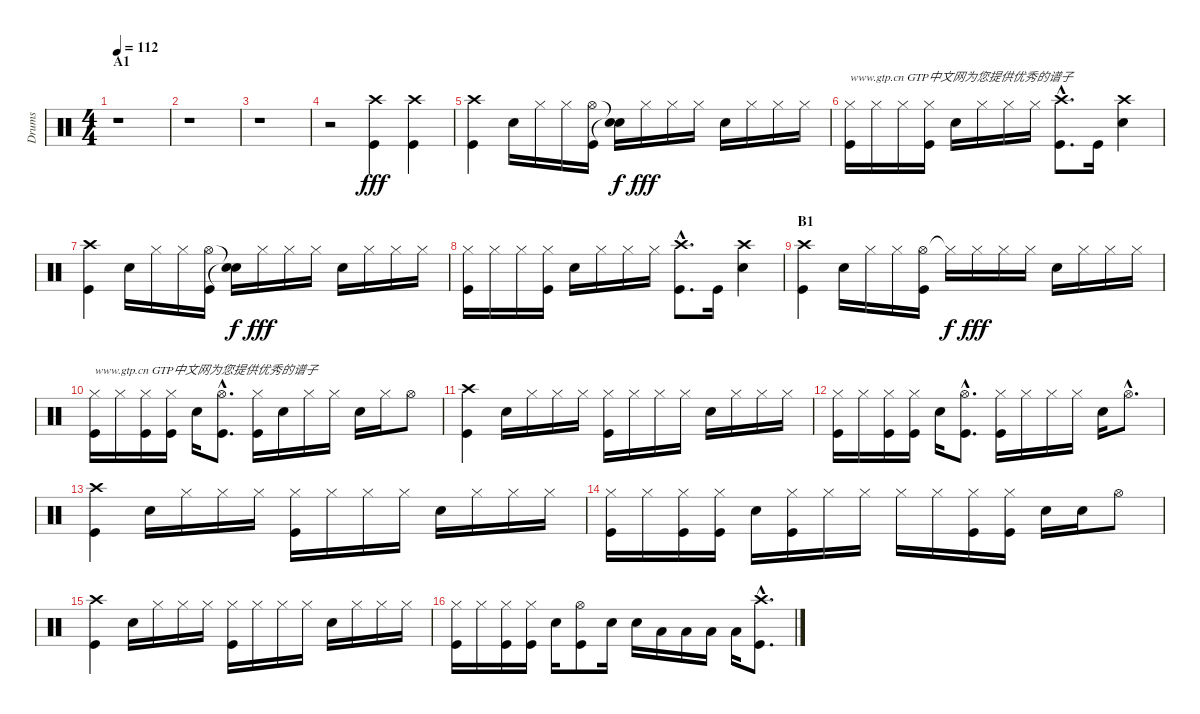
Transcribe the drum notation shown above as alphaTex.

\track ("Drums" "Drums") {instrument percussion}
\staff {score}
\articulation defaults
\ts (4 4)
\section ("" "A1")
\tempo 112
\clef neutral
\ks c
r.1{dy fff} |
r.1 |
r.1 |
r.2 ("Crash high (hit)" "Kick (hit)").4 ("Crash high (hit)" "Kick (hit)").4 |
("Crash high (hit)" "Kick (hit)").4 "Snare (hit) 2".16 "Hi-Hat (closed)".16 "Hi-Hat (closed)".16 ("Hi-Hat (open)" "Kick (hit)").16 ("Snare (hit)"{t} "Snare (hit)"{t}).16{dy f} "Hi-Hat (closed)".16{dy fff} "Hi-Hat (closed)".16 "Hi-Hat (closed)".16 "Snare (hit) 2".16 "Hi-Hat (closed)".16 "Hi-Hat (closed)".16 "Hi-Hat (closed)".16 |
("Hi-Hat (closed)" "Kick (hit)").16{txt "www.gtp.cn GTP中文网为您提供优秀的谱子"} "Hi-Hat (closed)".16 "Hi-Hat (closed)".16 ("Hi-Hat (closed)" "Kick (hit)").16 "Snare (hit) 2".16 "Hi-Hat (closed)".16 "Hi-Hat (closed)".16 "Hi-Hat (closed)".16 ("Crash high (hit)"{hac} "Kick (hit)"{hac}).8{d} "Kick (hit)".16 ("Crash high (hit)" "Snare (hit) 2").4 |
("Crash high (hit)" "Kick (hit)").4 "Snare (hit) 2".16 "Hi-Hat (closed)".16 "Hi-Hat (closed)".16 ("Hi-Hat (open)" "Kick (hit)").16 ("Snare (hit)"{t} "Snare (hit)"{t}).16{dy f} "Hi-Hat (closed)".16{dy fff} "Hi-Hat (closed)".16 "Hi-Hat (closed)".16 "Snare (hit) 2".16 "Hi-Hat (closed)".16 "Hi-Hat (closed)".16 "Hi-Hat (closed)".16 |
("Hi-Hat (closed)" "Kick (hit)").16 "Hi-Hat (closed)".16 "Hi-Hat (closed)".16 ("Hi-Hat (closed)" "Kick (hit)").16 "Snare (hit) 2".16 "Hi-Hat (closed)".16 "Hi-Hat (closed)".16 "Hi-Hat (closed)".16 ("Crash high (hit)"{hac} "Kick (hit)"{hac}).8{d} "Kick (hit)".16 ("Crash high (hit)" "Snare (hit) 2").4 |
\section ("" "B1")
("Crash high (hit)" "Kick (hit)").4 "Snare (hit) 2".16 "Hi-Hat (closed)".16 "Hi-Hat (closed)".16 ("Hi-Hat (open)" "Kick (hit)").16 "Hi-Hat (closed)"{t}.16{dy f} "Hi-Hat (closed)".16{dy fff} "Hi-Hat (closed)".16 "Hi-Hat (closed)".16 "Snare (hit) 2".16 "Hi-Hat (closed)".16 "Hi-Hat (closed)".16 "Hi-Hat (closed)".16 |
("Hi-Hat (closed)" "Kick (hit)").16{txt "www.gtp.cn GTP中文网为您提供优秀的谱子"} "Hi-Hat (closed)".16 ("Hi-Hat (closed)" "Kick (hit)").16 ("Hi-Hat (closed)" "Kick (hit)").16 "Snare (hit) 2".16 ("Hi-Hat (open)"{hac} "Kick (hit)"{hac}).8{d} ("Hi-Hat (closed)" "Kick (hit)").16 "Snare (hit) 2".16 "Hi-Hat (closed)".16 "Hi-Hat (closed)".16 "Snare (hit) 2".16 "Hi-Hat (closed)".16 "Hi-Hat (open)".8 |
("Crash high (hit)" "Kick (hit)").4 "Snare (hit) 2".16 "Hi-Hat (closed)".16 "Hi-Hat (closed)".16 "Hi-Hat (closed)".16 ("Hi-Hat (closed)" "Kick (hit)").16 "Hi-Hat (closed)".16 "Hi-Hat (closed)".16 "Hi-Hat (closed)".16 "Snare (hit) 2".16 "Hi-Hat (closed)".16 "Hi-Hat (closed)".16 "Hi-Hat (closed)".16 |
("Hi-Hat (closed)" "Kick (hit)").16 "Hi-Hat (closed)".16 ("Hi-Hat (closed)" "Kick (hit)").16 ("Hi-Hat (closed)" "Kick (hit)").16 "Snare (hit) 2".16 ("Hi-Hat (open)"{hac} "Kick (hit)"{hac}).8{d} ("Hi-Hat (closed)" "Kick (hit)").16 "Hi-Hat (closed)".16 "Hi-Hat (closed)".16 "Hi-Hat (closed)".16 "Snare (hit) 2".16 "Hi-Hat (open)"{hac}.8{d} |
("Crash high (hit)" "Kick (hit)").4 "Snare (hit) 2".16 "Hi-Hat (closed)".16 "Hi-Hat (closed)".16 "Hi-Hat (closed)".16 ("Hi-Hat (closed)" "Kick (hit)").16 "Hi-Hat (closed)".16 "Hi-Hat (closed)".16 "Hi-Hat (closed)".16 "Snare (hit) 2".16 "Hi-Hat (closed)".16 "Hi-Hat (closed)".16 "Hi-Hat (closed)".16 |
("Hi-Hat (closed)" "Kick (hit)").16 "Hi-Hat (closed)".16 ("Hi-Hat (closed)" "Kick (hit)").16 ("Hi-Hat (closed)" "Kick (hit)").16 "Snare (hit) 2".16 ("Hi-Hat (closed)" "Kick (hit)").16 "Hi-Hat (closed)".16 "Hi-Hat (closed)".16 "Hi-Hat (closed)".16 "Hi-Hat (closed)".16 ("Hi-Hat (closed)" "Kick (hit)").16 ("Hi-Hat (closed)" "Kick (hit)").16 "Snare (hit) 2".16 "Snare (hit) 2".16 "Hi-Hat (open)".8 |
("Crash high (hit)" "Kick (hit)").4 "Snare (hit) 2".16 "Hi-Hat (closed)".16 "Hi-Hat (closed)".16 "Hi-Hat (closed)".16 ("Hi-Hat (closed)" "Kick (hit)").16 "Hi-Hat (closed)".16 "Hi-Hat (closed)".16 "Hi-Hat (closed)".16 "Snare (hit) 2".16 "Hi-Hat (closed)".16 "Hi-Hat (closed)".16 "Hi-Hat (closed)".16 |
("Hi-Hat (closed)" "Kick (hit)").16 "Hi-Hat (closed)".16 ("Hi-Hat (closed)" "Kick (hit)").16 ("Hi-Hat (closed)" "Kick (hit)").16 "Snare (hit) 2".16 ("Hi-Hat (open)" "Kick (hit)").8 "Snare (hit) 2".16 "Snare (hit) 2".16 "Low Tom (hit)".16 "Low Tom (hit)".16 "Low Tom (hit)".16 "Low Tom (hit)".16 ("Crash high (hit)"{hac} "Kick (hit)"{hac}).8{d}
